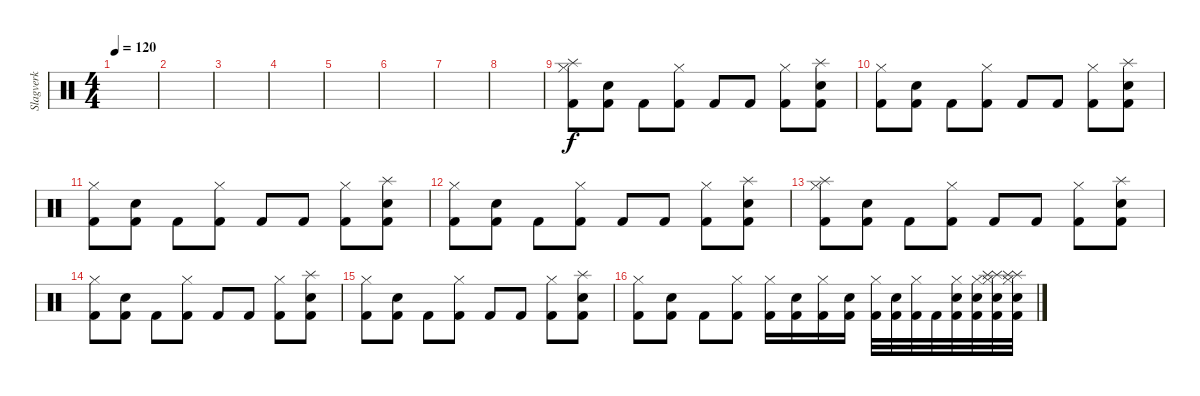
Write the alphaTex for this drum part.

\track ("Slagverk" "Slagverk") {instrument percussion}
\staff {score}
\articulation defaults
\ts (4 4)
\tempo 120
\clef neutral
\ks c
|
|
|
|
|
|
|
|
("Kick (hit) 2" "Hi-Hat (closed)" "Splash (hit)").8 ("Kick (hit) 2" "Electric Snare (hit)").8 "Kick (hit) 2".8 ("Kick (hit) 2" "Hi-Hat (closed)").8 "Kick (hit) 2".8 "Kick (hit) 2".8 ("Kick (hit) 2" "Hi-Hat (closed)").8 ("Kick (hit) 2" "Splash (hit)" "Electric Snare (hit)").8 |
("Kick (hit) 2" "Hi-Hat (closed)").8 ("Kick (hit) 2" "Electric Snare (hit)").8 "Kick (hit) 2".8 ("Kick (hit) 2" "Hi-Hat (closed)").8 "Kick (hit) 2".8 "Kick (hit) 2".8 ("Kick (hit) 2" "Hi-Hat (closed)").8 ("Kick (hit) 2" "Splash (hit)" "Electric Snare (hit)").8 |
("Kick (hit) 2" "Hi-Hat (closed)").8 ("Kick (hit) 2" "Electric Snare (hit)").8 "Kick (hit) 2".8 ("Kick (hit) 2" "Hi-Hat (closed)").8 "Kick (hit) 2".8 "Kick (hit) 2".8 ("Kick (hit) 2" "Hi-Hat (closed)").8 ("Kick (hit) 2" "Splash (hit)" "Electric Snare (hit)").8 |
("Kick (hit) 2" "Hi-Hat (closed)").8 ("Kick (hit) 2" "Electric Snare (hit)").8 "Kick (hit) 2".8 ("Kick (hit) 2" "Hi-Hat (closed)").8 "Kick (hit) 2".8 "Kick (hit) 2".8 ("Kick (hit) 2" "Hi-Hat (closed)").8 ("Kick (hit) 2" "Splash (hit)" "Electric Snare (hit)").8 |
("Kick (hit) 2" "Hi-Hat (closed)" "Splash (hit)").8 ("Kick (hit) 2" "Electric Snare (hit)").8 "Kick (hit) 2".8 ("Kick (hit) 2" "Hi-Hat (closed)").8 "Kick (hit) 2".8 "Kick (hit) 2".8 ("Kick (hit) 2" "Hi-Hat (closed)").8 ("Kick (hit) 2" "Splash (hit)" "Electric Snare (hit)").8 |
("Kick (hit) 2" "Hi-Hat (closed)").8 ("Kick (hit) 2" "Electric Snare (hit)").8 "Kick (hit) 2".8 ("Kick (hit) 2" "Hi-Hat (closed)").8 "Kick (hit) 2".8 "Kick (hit) 2".8 ("Kick (hit) 2" "Hi-Hat (closed)").8 ("Kick (hit) 2" "Splash (hit)" "Electric Snare (hit)").8 |
("Kick (hit) 2" "Hi-Hat (closed)").8 ("Kick (hit) 2" "Electric Snare (hit)").8 "Kick (hit) 2".8 ("Kick (hit) 2" "Hi-Hat (closed)").8 "Kick (hit) 2".8 "Kick (hit) 2".8 ("Kick (hit) 2" "Hi-Hat (closed)").8 ("Kick (hit) 2" "Splash (hit)" "Electric Snare (hit)").8 |
("Kick (hit) 2" "Hi-Hat (closed)").8 ("Kick (hit) 2" "Electric Snare (hit)").8 "Kick (hit) 2".8 ("Kick (hit) 2" "Hi-Hat (closed)").8 ("Kick (hit) 2" "Hi-Hat (closed)").16 ("Kick (hit) 2" "Electric Snare (hit)").16 ("Kick (hit) 2" "Hi-Hat (closed)").16 ("Kick (hit) 2" "Electric Snare (hit)").16 ("Kick (hit) 2" "Hi-Hat (closed)").32 ("Kick (hit) 2" "Electric Snare (hit)").32 ("Kick (hit) 2" "Hi-Hat (closed)").32 "Kick (hit) 2".32 ("Kick (hit) 2" "Hi-Hat (closed)" "Electric Snare (hit)").32 ("Kick (hit) 2" "Hi-Hat (closed)" "Electric Snare (hit)").32 ("Kick (hit) 2" "Splash (hit)" "Hi-Hat (closed)" "Splash (hit)" "Electric Snare (hit)").32 ("Kick (hit) 2" "Splash (hit)" "Hi-Hat (closed)" "Splash (hit)" "Electric Snare (hit)").32
